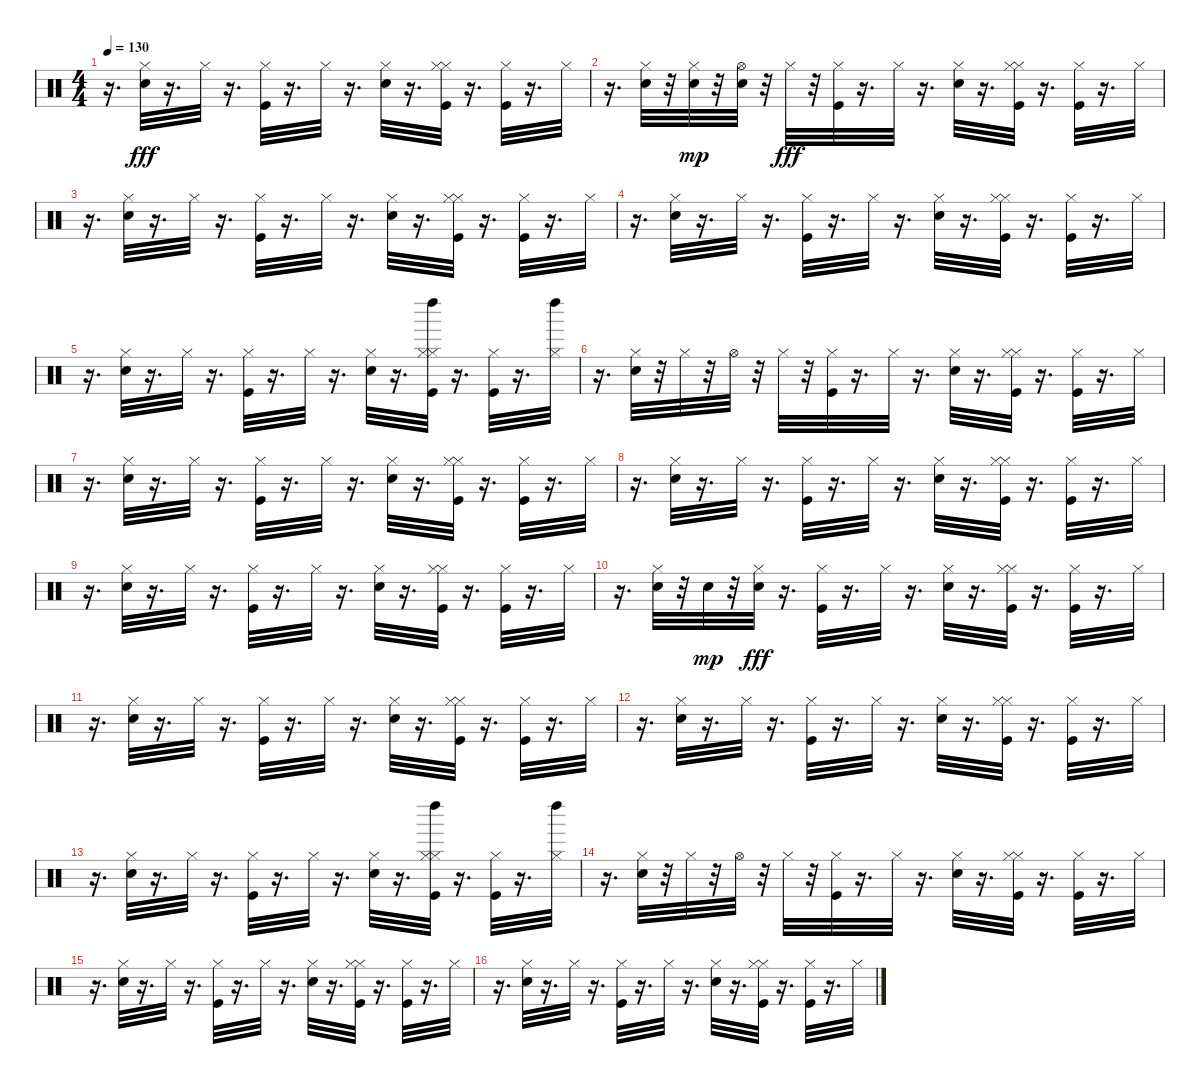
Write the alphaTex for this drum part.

\track "" {instrument percussion}
\staff {score}
\articulation defaults
\ts (4 4)
\tempo 130
\clef neutral
\ks c
r.16{d dy fff} ("Hi-Hat (closed)" "Electric Snare (hit)").32 r.16{d} "Hi-Hat (closed)".32 r.16{d} ("Hi-Hat (closed)" "Kick (hit)").32 r.16{d} "Hi-Hat (closed)".32 r.16{d} ("Hi-Hat (closed)" "Electric Snare (hit)").32 r.16{d} ("Hi-Hat (closed)" "Hi-Hat (closed)" "Kick (hit)").32 r.16{d} ("Hi-Hat (closed)" "Kick (hit)").32 r.16{d} "Hi-Hat (closed)".32 |
r.16{d} ("Hi-Hat (closed)" "Electric Snare (hit)").32 r.32 ("Hi-Hat (closed)" "Snare (hit) 2").32{dy mp} r.32 ("Hi-Hat (open)" "Snare (hit) 2").32 r.32 "Hi-Hat (closed)".32{dy fff} r.32 ("Hi-Hat (closed)" "Kick (hit)").32 r.16{d} "Hi-Hat (closed)".32 r.16{d} ("Hi-Hat (closed)" "Electric Snare (hit)").32 r.16{d} ("Hi-Hat (closed)" "Hi-Hat (closed)" "Kick (hit)").32 r.16{d} ("Hi-Hat (closed)" "Kick (hit)").32 r.16{d} "Hi-Hat (closed)".32 |
r.16{d} ("Hi-Hat (closed)" "Electric Snare (hit)").32 r.16{d} "Hi-Hat (closed)".32 r.16{d} ("Hi-Hat (closed)" "Kick (hit)").32 r.16{d} "Hi-Hat (closed)".32 r.16{d} ("Hi-Hat (closed)" "Electric Snare (hit)").32 r.16{d} ("Hi-Hat (closed)" "Hi-Hat (closed)" "Kick (hit)").32 r.16{d} ("Hi-Hat (closed)" "Kick (hit)").32 r.16{d} "Hi-Hat (closed)".32 |
r.16{d} ("Hi-Hat (closed)" "Electric Snare (hit)").32 r.16{d} "Hi-Hat (closed)".32 r.16{d} ("Hi-Hat (closed)" "Kick (hit)").32 r.16{d} "Hi-Hat (closed)".32 r.16{d} ("Hi-Hat (closed)" "Electric Snare (hit)").32 r.16{d} ("Hi-Hat (closed)" "Hi-Hat (closed)" "Kick (hit)").32 r.16{d} ("Hi-Hat (closed)" "Kick (hit)").32 r.16{d} "Hi-Hat (closed)".32 |
r.16{d} ("Hi-Hat (closed)" "Electric Snare (hit)").32 r.16{d} "Hi-Hat (closed)".32 r.16{d} ("Hi-Hat (closed)" "Kick (hit)").32 r.16{d} "Hi-Hat (closed)".32 r.16{d} ("Hi-Hat (closed)" "Electric Snare (hit)").32 r.16{d} ("Hi-Hat (closed)" "Left Maraca (hit)" "Hi-Hat (closed)" "Kick (hit)").32 r.16{d} ("Hi-Hat (closed)" "Kick (hit)").32 r.16{d} ("Left Maraca (hit)" "Hi-Hat (closed)").32 |
r.16{d} ("Hi-Hat (closed)" "Electric Snare (hit)").32 r.32 "Hi-Hat (closed)".32 r.32 "Hi-Hat (open)".32 r.32 "Hi-Hat (closed)".32 r.32 ("Hi-Hat (closed)" "Kick (hit)").32 r.16{d} "Hi-Hat (closed)".32 r.16{d} ("Hi-Hat (closed)" "Electric Snare (hit)").32 r.16{d} ("Hi-Hat (closed)" "Hi-Hat (closed)" "Kick (hit)").32 r.16{d} ("Hi-Hat (closed)" "Kick (hit)").32 r.16{d} "Hi-Hat (closed)".32 |
r.16{d} ("Hi-Hat (closed)" "Electric Snare (hit)").32 r.16{d} "Hi-Hat (closed)".32 r.16{d} ("Hi-Hat (closed)" "Kick (hit)").32 r.16{d} "Hi-Hat (closed)".32 r.16{d} ("Hi-Hat (closed)" "Electric Snare (hit)").32 r.16{d} ("Hi-Hat (closed)" "Hi-Hat (closed)" "Kick (hit)").32 r.16{d} ("Hi-Hat (closed)" "Kick (hit)").32 r.16{d} "Hi-Hat (closed)".32 |
r.16{d} ("Hi-Hat (closed)" "Electric Snare (hit)").32 r.16{d} "Hi-Hat (closed)".32 r.16{d} ("Hi-Hat (closed)" "Kick (hit)").32 r.16{d} "Hi-Hat (closed)".32 r.16{d} ("Hi-Hat (closed)" "Electric Snare (hit)").32 r.16{d} ("Hi-Hat (closed)" "Hi-Hat (closed)" "Kick (hit)").32 r.16{d} ("Hi-Hat (closed)" "Kick (hit)").32 r.16{d} "Hi-Hat (closed)".32 |
r.16{d} ("Hi-Hat (closed)" "Electric Snare (hit)").32 r.16{d} "Hi-Hat (closed)".32 r.16{d} ("Hi-Hat (closed)" "Kick (hit)").32 r.16{d} "Hi-Hat (closed)".32 r.16{d} ("Hi-Hat (closed)" "Electric Snare (hit)").32 r.16{d} ("Hi-Hat (closed)" "Hi-Hat (closed)" "Kick (hit)").32 r.16{d} ("Hi-Hat (closed)" "Kick (hit)").32 r.16{d} "Hi-Hat (closed)".32 |
r.16{d} ("Hi-Hat (closed)" "Electric Snare (hit)").32 r.32 "Snare (hit) 2".32{dy mp} r.32 ("Snare (hit) 2" "Hi-Hat (closed)").32{dy fff} r.16{d} ("Hi-Hat (closed)" "Kick (hit)").32 r.16{d} "Hi-Hat (closed)".32 r.16{d} ("Hi-Hat (closed)" "Electric Snare (hit)").32 r.16{d} ("Hi-Hat (closed)" "Hi-Hat (closed)" "Kick (hit)").32 r.16{d} ("Hi-Hat (closed)" "Kick (hit)").32 r.16{d} "Hi-Hat (closed)".32 |
r.16{d} ("Hi-Hat (closed)" "Electric Snare (hit)").32 r.16{d} "Hi-Hat (closed)".32 r.16{d} ("Hi-Hat (closed)" "Kick (hit)").32 r.16{d} "Hi-Hat (closed)".32 r.16{d} ("Hi-Hat (closed)" "Electric Snare (hit)").32 r.16{d} ("Hi-Hat (closed)" "Hi-Hat (closed)" "Kick (hit)").32 r.16{d} ("Hi-Hat (closed)" "Kick (hit)").32 r.16{d} "Hi-Hat (closed)".32 |
r.16{d} ("Hi-Hat (closed)" "Electric Snare (hit)").32 r.16{d} "Hi-Hat (closed)".32 r.16{d} ("Hi-Hat (closed)" "Kick (hit)").32 r.16{d} "Hi-Hat (closed)".32 r.16{d} ("Hi-Hat (closed)" "Electric Snare (hit)").32 r.16{d} ("Hi-Hat (closed)" "Hi-Hat (closed)" "Kick (hit)").32 r.16{d} ("Hi-Hat (closed)" "Kick (hit)").32 r.16{d} "Hi-Hat (closed)".32 |
r.16{d} ("Hi-Hat (closed)" "Electric Snare (hit)").32 r.16{d} "Hi-Hat (closed)".32 r.16{d} ("Hi-Hat (closed)" "Kick (hit)").32 r.16{d} "Hi-Hat (closed)".32 r.16{d} ("Hi-Hat (closed)" "Electric Snare (hit)").32 r.16{d} ("Hi-Hat (closed)" "Left Maraca (hit)" "Hi-Hat (closed)" "Kick (hit)").32 r.16{d} ("Hi-Hat (closed)" "Kick (hit)").32 r.16{d} ("Left Maraca (hit)" "Hi-Hat (closed)").32 |
r.16{d} ("Hi-Hat (closed)" "Electric Snare (hit)").32 r.32 "Hi-Hat (closed)".32 r.32 "Hi-Hat (open)".32 r.32 "Hi-Hat (closed)".32 r.32 ("Hi-Hat (closed)" "Kick (hit)").32 r.16{d} "Hi-Hat (closed)".32 r.16{d} ("Hi-Hat (closed)" "Electric Snare (hit)").32 r.16{d} ("Hi-Hat (closed)" "Hi-Hat (closed)" "Kick (hit)").32 r.16{d} ("Hi-Hat (closed)" "Kick (hit)").32 r.16{d} "Hi-Hat (closed)".32 |
r.16{d} ("Hi-Hat (closed)" "Electric Snare (hit)").32 r.16{d} "Hi-Hat (closed)".32 r.16{d} ("Hi-Hat (closed)" "Kick (hit)").32 r.16{d} "Hi-Hat (closed)".32 r.16{d} ("Hi-Hat (closed)" "Electric Snare (hit)").32 r.16{d} ("Hi-Hat (closed)" "Hi-Hat (closed)" "Kick (hit)").32 r.16{d} ("Hi-Hat (closed)" "Kick (hit)").32 r.16{d} "Hi-Hat (closed)".32 |
r.16{d} ("Hi-Hat (closed)" "Electric Snare (hit)").32 r.16{d} "Hi-Hat (closed)".32 r.16{d} ("Hi-Hat (closed)" "Kick (hit)").32 r.16{d} "Hi-Hat (closed)".32 r.16{d} ("Hi-Hat (closed)" "Electric Snare (hit)").32 r.16{d} ("Hi-Hat (closed)" "Hi-Hat (closed)" "Kick (hit)").32 r.16{d} ("Hi-Hat (closed)" "Kick (hit)").32 r.16{d} "Hi-Hat (closed)".32
